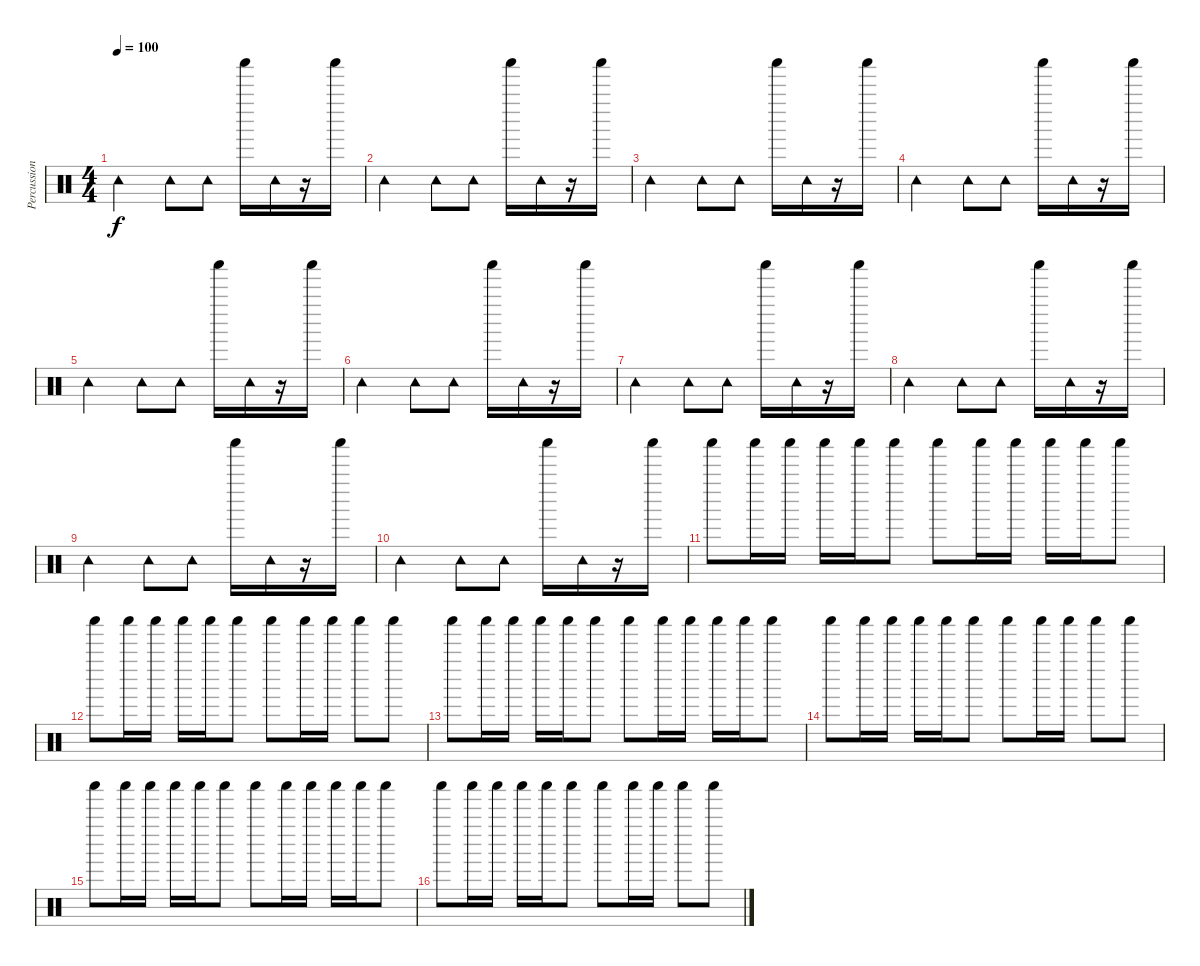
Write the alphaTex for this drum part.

\track ("Percussion" "Percussion") {instrument percussion}
\staff {score}
\articulation defaults
\ts (4 4)
\tempo 100
\clef neutral
\ks c "Tambourine (hit)".2{dy f} "Tambourine (hit)".8 "Tambourine (hit)".8 "Shaker (hit)".16 "Tambourine (hit)".16
r.16 "Shaker (hit)".16 |
"Tambourine (hit)".2 "Tambourine (hit)".8 "Tambourine (hit)".8 "Shaker (hit)".16 "Tambourine (hit)".16 r.16 "Shaker (hit)".16 |
"Tambourine (hit)".2 "Tambourine (hit)".8 "Tambourine (hit)".8 "Shaker (hit)".16 "Tambourine (hit)".16 r.16 "Shaker (hit)".16 |
"Tambourine (hit)".2 "Tambourine (hit)".8 "Tambourine (hit)".8 "Shaker (hit)".16 "Tambourine (hit)".16 r.16 "Shaker (hit)".16 |
"Tambourine (hit)".2 "Tambourine (hit)".8 "Tambourine (hit)".8 "Shaker (hit)".16 "Tambourine (hit)".16 r.16 "Shaker (hit)".16 |
"Tambourine (hit)".2 "Tambourine (hit)".8 "Tambourine (hit)".8 "Shaker (hit)".16 "Tambourine (hit)".16 r.16 "Shaker (hit)".16 |
"Tambourine (hit)".2 "Tambourine (hit)".8 "Tambourine (hit)".8 "Shaker (hit)".16 "Tambourine (hit)".16 r.16 "Shaker (hit)".16 |
"Tambourine (hit)".2 "Tambourine (hit)".8 "Tambourine (hit)".8 "Shaker (hit)".16 "Tambourine (hit)".16 r.16 "Shaker (hit)".16 |
"Tambourine (hit)".2 "Tambourine (hit)".8 "Tambourine (hit)".8 "Shaker (hit)".16 "Tambourine (hit)".16 r.16 "Shaker (hit)".16 |
"Tambourine (hit)".2 "Tambourine (hit)".8 "Tambourine (hit)".8 "Shaker (hit)".16 "Tambourine (hit)".16 r.16 "Shaker (hit)".16 |
"Shaker (hit)".8 "Shaker (hit)".16 "Shaker (hit)".16 "Shaker (hit)".16 "Shaker (hit)".16 "Shaker (hit)".8 "Shaker (hit)".8 "Shaker (hit)".16 "Shaker (hit)".16 "Shaker (hit)".16 "Shaker (hit)".16 "Shaker (hit)".8 |
"Shaker (hit)".8 "Shaker (hit)".16 "Shaker (hit)".16 "Shaker (hit)".16 "Shaker (hit)".16 "Shaker (hit)".8 "Shaker (hit)".8 "Shaker (hit)".16 "Shaker (hit)".16 "Shaker (hit)".8 "Shaker (hit)".8 |
"Shaker (hit)".8 "Shaker (hit)".16 "Shaker (hit)".16 "Shaker (hit)".16 "Shaker (hit)".16 "Shaker (hit)".8 "Shaker (hit)".8 "Shaker (hit)".16 "Shaker (hit)".16 "Shaker (hit)".16 "Shaker (hit)".16 "Shaker (hit)".8 |
"Shaker (hit)".8 "Shaker (hit)".16 "Shaker (hit)".16 "Shaker (hit)".16 "Shaker (hit)".16 "Shaker (hit)".8 "Shaker (hit)".8 "Shaker (hit)".16 "Shaker (hit)".16 "Shaker (hit)".8 "Shaker (hit)".8 |
"Shaker (hit)".8 "Shaker (hit)".16 "Shaker (hit)".16 "Shaker (hit)".16 "Shaker (hit)".16 "Shaker (hit)".8 "Shaker (hit)".8 "Shaker (hit)".16 "Shaker (hit)".16 "Shaker (hit)".16 "Shaker (hit)".16 "Shaker (hit)".8 |
"Shaker (hit)".8 "Shaker (hit)".16 "Shaker (hit)".16 "Shaker (hit)".16 "Shaker (hit)".16 "Shaker (hit)".8 "Shaker (hit)".8 "Shaker (hit)".16 "Shaker (hit)".16 "Shaker (hit)".8 "Shaker (hit)".8
